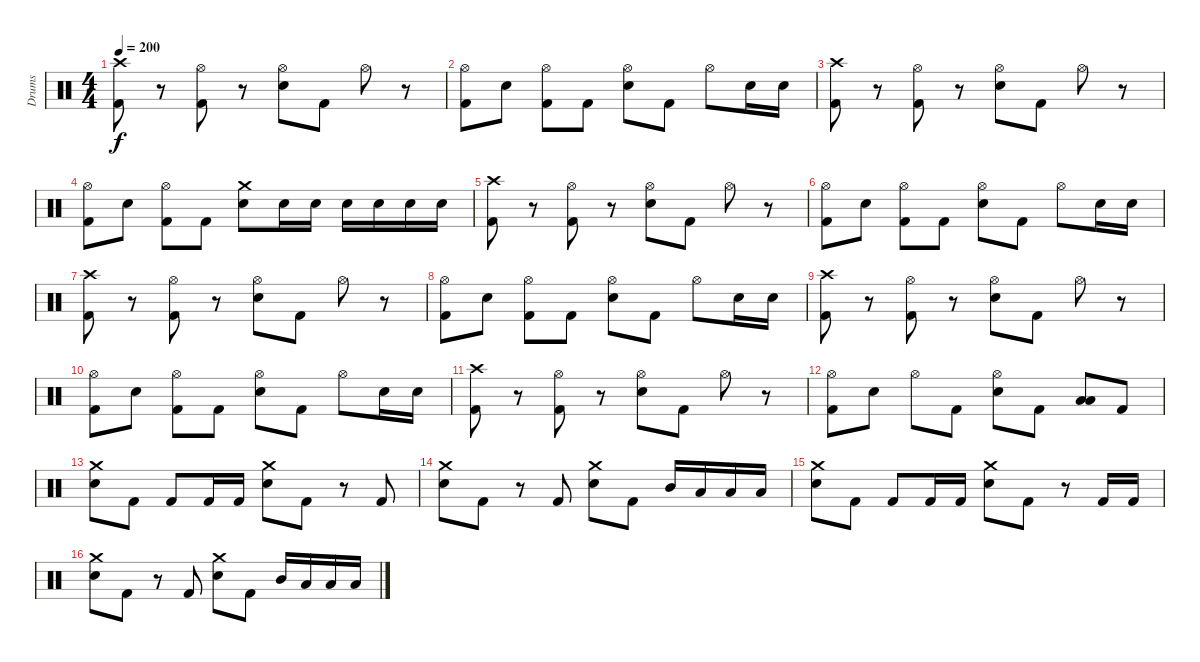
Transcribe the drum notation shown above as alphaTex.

\track ("Drums" "Drums") {instrument percussion}
\staff {score}
\articulation defaults
\ts (4 4)
\tempo 200
\clef neutral
\ks c
("Crash high (hit)" "Kick (hit) 2").8{dy f} r.8 ("Hi-Hat (open)" "Kick (hit) 2").8 r.8 ("Hi-Hat (open)" "Electric Snare (hit)").8 "Kick (hit) 2".8 "Hi-Hat (open)".8 r.8 |
("Hi-Hat (open)" "Kick (hit) 2").8 "Electric Snare (hit)".8 ("Hi-Hat (open)" "Kick (hit) 2").8 "Kick (hit) 2".8 ("Hi-Hat (open)" "Electric Snare (hit)").8 "Kick (hit) 2".8 "Hi-Hat (open)".8 "Electric Snare (hit)".16 "Electric Snare (hit)".16 |
("Crash high (hit)" "Kick (hit) 2").8 r.8 ("Hi-Hat (open)" "Kick (hit) 2").8 r.8 ("Hi-Hat (open)" "Electric Snare (hit)").8 "Kick (hit) 2".8 "Hi-Hat (open)".8 r.8 |
("Hi-Hat (open)" "Kick (hit) 2").8 "Electric Snare (hit)".8 ("Hi-Hat (open)" "Kick (hit) 2").8 "Kick (hit) 2".8 ("Crash medium (hit)" "Electric Snare (hit)").8 "Electric Snare (hit)".16 "Electric Snare (hit)".16 "Electric Snare (hit)".16 "Electric Snare (hit)".16 "Electric Snare (hit)".16 "Electric Snare (hit)".16 |
("Crash high (hit)" "Kick (hit) 2").8 r.8 ("Hi-Hat (open)" "Kick (hit) 2").8 r.8 ("Hi-Hat (open)" "Electric Snare (hit)").8 "Kick (hit) 2".8 "Hi-Hat (open)".8 r.8 |
("Hi-Hat (open)" "Kick (hit) 2").8 "Electric Snare (hit)".8 ("Hi-Hat (open)" "Kick (hit) 2").8 "Kick (hit) 2".8 ("Hi-Hat (open)" "Electric Snare (hit)").8 "Kick (hit) 2".8 "Hi-Hat (open)".8 "Electric Snare (hit)".16 "Electric Snare (hit)".16 |
("Crash high (hit)" "Kick (hit) 2").8 r.8 ("Hi-Hat (open)" "Kick (hit) 2").8 r.8 ("Hi-Hat (open)" "Electric Snare (hit)").8 "Kick (hit) 2".8 "Hi-Hat (open)".8 r.8 |
("Hi-Hat (open)" "Kick (hit) 2").8 "Electric Snare (hit)".8 ("Hi-Hat (open)" "Kick (hit) 2").8 "Kick (hit) 2".8 ("Hi-Hat (open)" "Electric Snare (hit)").8 "Kick (hit) 2".8 "Hi-Hat (open)".8 "Electric Snare (hit)".16 "Electric Snare (hit)".16 |
("Crash high (hit)" "Kick (hit) 2").8 r.8 ("Hi-Hat (open)" "Kick (hit) 2").8 r.8 ("Hi-Hat (open)" "Electric Snare (hit)").8 "Kick (hit) 2".8 "Hi-Hat (open)".8 r.8 |
("Hi-Hat (open)" "Kick (hit) 2").8 "Electric Snare (hit)".8 ("Hi-Hat (open)" "Kick (hit) 2").8 "Kick (hit) 2".8 ("Hi-Hat (open)" "Electric Snare (hit)").8 "Kick (hit) 2".8 "Hi-Hat (open)".8 "Electric Snare (hit)".16 "Electric Snare (hit)".16 |
("Crash high (hit)" "Kick (hit) 2").8 r.8 ("Hi-Hat (open)" "Kick (hit) 2").8 r.8 ("Hi-Hat (open)" "Electric Snare (hit)").8 "Kick (hit) 2".8 "Hi-Hat (open)".8 r.8 |
("Hi-Hat (open)" "Kick (hit) 2").8 "Electric Snare (hit)".8 "Hi-Hat (open)".8 "Kick (hit) 2".8 ("Hi-Hat (open)" "Electric Snare (hit)").8 "Kick (hit) 2".8 ("Low Floor Tom (hit)" "Low Tom (hit)").8 "Kick (hit) 2".8 |
("Crash medium (hit)" "Electric Snare (hit)").8 "Kick (hit) 2".8 "Kick (hit) 2".8 "Kick (hit) 2".16 "Kick (hit) 2".16 ("Crash medium (hit)" "Electric Snare (hit)").8 "Kick (hit) 2".8 r.8 "Kick (hit) 2".8 |
("Crash medium (hit)" "Electric Snare (hit)").8 "Kick (hit) 2".8 r.8 "Kick (hit) 2".8 ("Crash medium (hit)" "Electric Snare (hit)").8 "Kick (hit) 2".8 "Mid Tom (hit)".16 "Low Tom (hit)".16 "Low Floor Tom (hit)".16 "Low Floor Tom (hit)".16 |
("Crash medium (hit)" "Electric Snare (hit)").8 "Kick (hit) 2".8 "Kick (hit) 2".8 "Kick (hit) 2".16 "Kick (hit) 2".16 ("Crash medium (hit)" "Electric Snare (hit)").8 "Kick (hit) 2".8 r.8 "Kick (hit) 2".16 "Kick (hit) 2".16 |
("Crash medium (hit)" "Electric Snare (hit)").8 "Kick (hit) 2".8 r.8 "Kick (hit) 2".8 ("Crash medium (hit)" "Electric Snare (hit)").8 "Kick (hit) 2".8 "Mid Tom (hit)".16 "Low Tom (hit)".16 "Low Floor Tom (hit)".16 "Low Floor Tom (hit)".16
